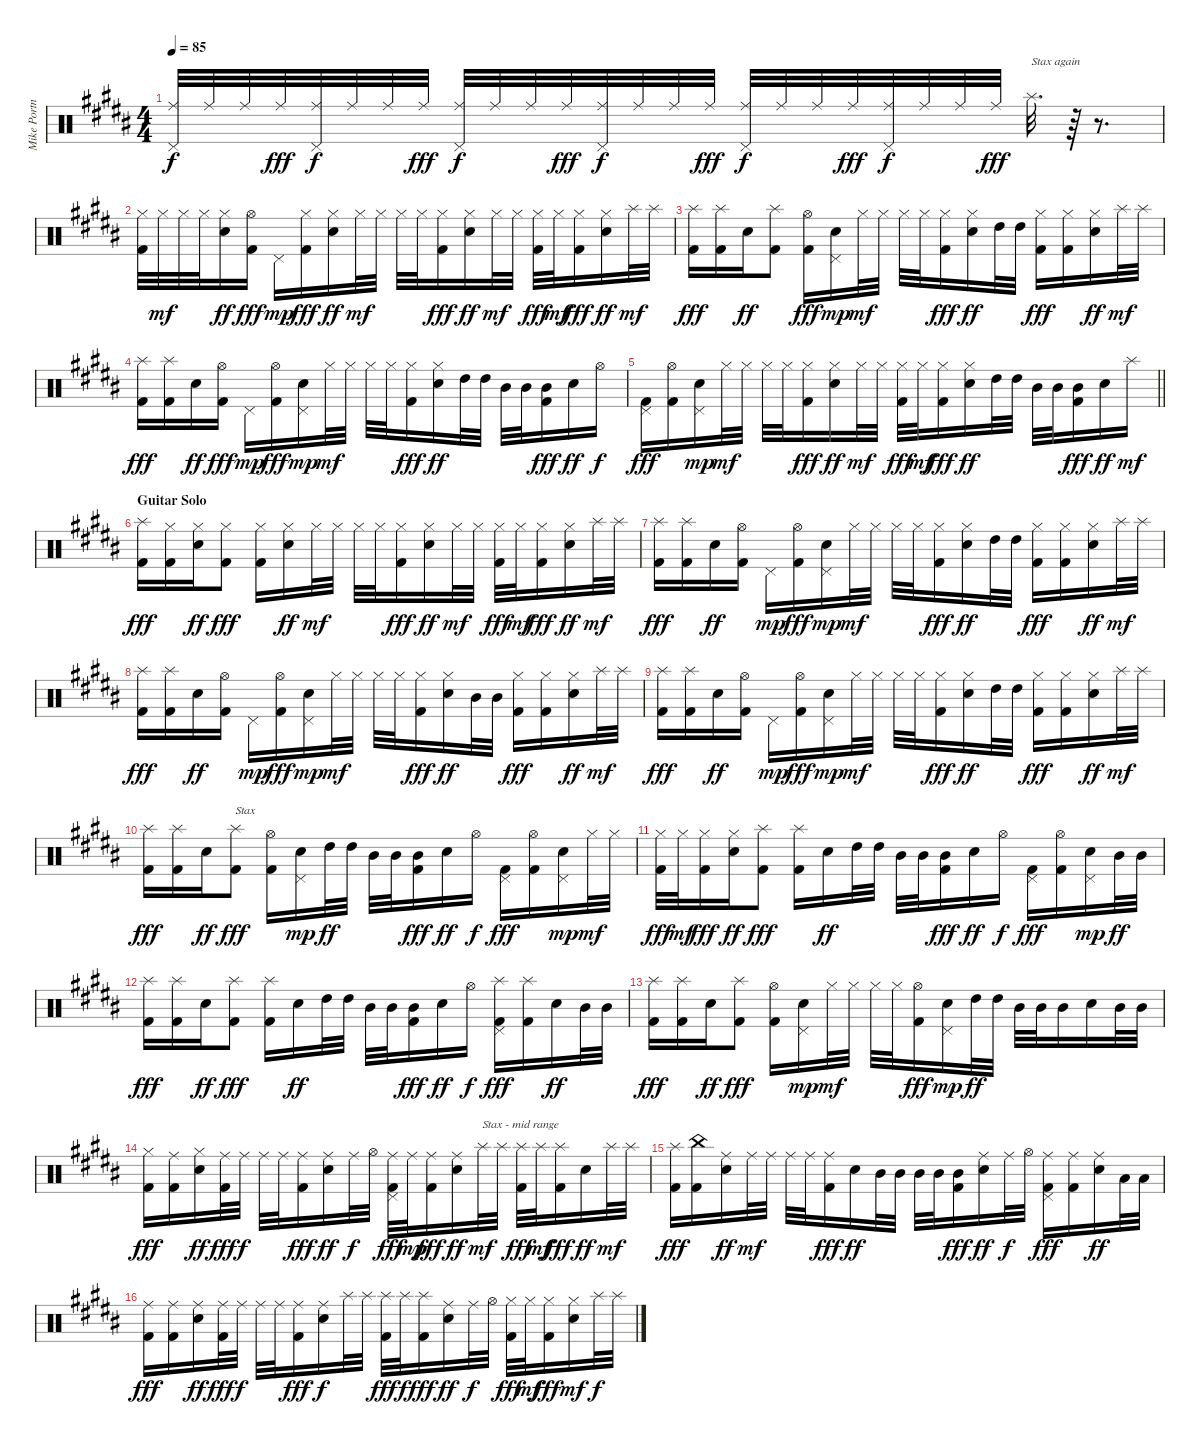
\track ("Mike Portnoy" "Mike Portn") {instrument percussion}
\staff {score}
\articulation defaults
\ts (4 4)
\tempo 85
\clef neutral
\ks b
("Ride (middle)" "Pedal Hi-Hat (hit)").32{dy f} "Ride (middle)".32 "Ride (middle)".32 "Ride (middle)".32{dy fff} ("Ride (middle)" "Pedal Hi-Hat (hit)").32{dy f} "Ride (middle)".32 "Ride (middle)".32 "Ride (middle)".32{dy fff} ("Ride (middle)" "Pedal Hi-Hat (hit)").32{dy f} "Ride (middle)".32 "Ride (middle)".32 "Ride (middle)".32{dy fff} ("Ride (middle)" "Pedal Hi-Hat (hit)").32{dy f} "Ride (middle)".32 "Ride (middle)".32 "Ride (middle)".32{dy fff} ("Ride (middle)" "Pedal Hi-Hat (hit)").32{dy f} "Ride (middle)".32 "Ride (middle)".32 "Ride (middle)".32{dy fff} ("Ride (middle)" "Pedal Hi-Hat (hit)").32{dy f} "Ride (middle)".32 "Ride (middle)".32 "Ride (middle)".32{dy fff} "Splash (hit)".32{d txt "Stax again"} r.64{volume 0} r.8{d} |
("Hi-Hat (closed)" "Kick (hit) 2").32{volume 16} "Hi-Hat (closed)".32{dy mf} "Hi-Hat (closed)".32 "Hi-Hat (closed)".32 ("Hi-Hat (closed)" "Electric Snare (hit)").16{dy ff} ("Hi-Hat (open)" "Kick (hit) 2").16{dy fff} "Pedal Hi-Hat (hit)".16{dy mp} ("Hi-Hat (closed)" "Kick (hit) 2").16{dy fff} ("Hi-Hat (closed)" "Electric Snare (hit)").16{dy ff} "Hi-Hat (closed)".32{dy mf} "Hi-Hat (closed)".32 "Hi-Hat (closed)".32 "Hi-Hat (closed)".32 ("Hi-Hat (closed)" "Kick (hit) 2").16{dy fff} ("Hi-Hat (closed)" "Electric Snare (hit)").16{dy ff} "Hi-Hat (closed)".32{dy mf} "Hi-Hat (closed)".32 ("Hi-Hat (closed)" "Kick (hit) 2").32{dy fff} "Hi-Hat (closed)".32{dy mf} ("Hi-Hat (closed)" "Kick (hit) 2").16{dy fff} ("Hi-Hat (closed)" "Electric Snare (hit)").16{dy ff} "Splash (hit)".32{dy mf} "Splash (hit)".32 |
("Splash (hit)" "Kick (hit) 2").16{dy fff} ("Splash (hit)" "Kick (hit) 2").16 "Electric Snare (hit)".16{dy ff} ("Splash (hit)" "Kick (hit) 2").8 ("Hi-Hat (open)" "Kick (hit) 2").16{dy fff} ("Electric Snare (hit)" "Pedal Hi-Hat (hit)").16{dy mp} "Hi-Hat (closed)".32{dy mf} "Hi-Hat (closed)".32 "Hi-Hat (closed)".32 "Hi-Hat (closed)".32 ("Hi-Hat (closed)" "Kick (hit) 2").16{dy fff} ("Hi-Hat (closed)" "Electric Snare (hit)").16{dy ff} "High Tom (hit)".32 "High Tom (hit)".32 ("Hi-Hat (closed)" "Kick (hit) 2").16{dy fff} ("Hi-Hat (closed)" "Kick (hit) 2").16 ("Hi-Hat (closed)" "Electric Snare (hit)").16{dy ff} "Splash (hit)".32{dy mf} "Splash (hit)".32 |
("Splash (hit)" "Kick (hit) 2").16{dy fff} ("Splash (hit)" "Kick (hit) 2").16 "Electric Snare (hit)".16{dy ff} ("Hi-Hat (open)" "Kick (hit) 2").16{dy fff} "Pedal Hi-Hat (hit)".16{dy mp} ("Hi-Hat (open)" "Kick (hit) 2").16{dy fff} ("Electric Snare (hit)" "Pedal Hi-Hat (hit)").16{dy mp} "Hi-Hat (closed)".32{dy mf} "Hi-Hat (closed)".32 "Hi-Hat (closed)".32 "Hi-Hat (closed)".32 ("Hi-Hat (closed)" "Kick (hit) 2").16{dy fff} ("Hi-Hat (closed)" "Electric Snare (hit)").16{dy ff} "High Tom (hit)".32 "High Tom (hit)".32 "Mid Tom (hit)".32 "Mid Tom (hit)".32 ("Mid Tom (hit)" "Kick (hit) 2").16{dy fff} "Electric Snare (hit)".16{dy ff} "Hi-Hat (open)".16{dy f} |
\barLineRight lightlight
("Pedal Hi-Hat (hit)" "Kick (hit) 2").16{dy fff} ("Hi-Hat (open)" "Kick (hit) 2").16 ("Electric Snare (hit)" "Pedal Hi-Hat (hit)").16{dy mp} "Hi-Hat (closed)".32{dy mf} "Hi-Hat (closed)".32 "Hi-Hat (closed)".32 "Hi-Hat (closed)".32 ("Hi-Hat (closed)" "Kick (hit) 2").16{dy fff} ("Hi-Hat (closed)" "Electric Snare (hit)").16{dy ff} "Hi-Hat (closed)".32{dy mf} "Hi-Hat (closed)".32 ("Hi-Hat (closed)" "Kick (hit) 2").32{dy fff} "Hi-Hat (closed)".32{dy mf} ("Hi-Hat (closed)" "Kick (hit) 2").16{dy fff} ("Hi-Hat (closed)" "Electric Snare (hit)").16{dy ff} "High Tom (hit)".32 "High Tom (hit)".32 "Mid Tom (hit)".32 "Mid Tom (hit)".32 ("Mid Tom (hit)" "Kick (hit) 2").16{dy fff} "Electric Snare (hit)".16{dy ff} "Splash (hit)".16{dy mf} |
\section ("" "Guitar Solo")
("Splash (hit)" "Kick (hit) 2").16{dy fff} ("Hi-Hat (closed)" "Kick (hit) 2").16 ("Hi-Hat (closed)" "Electric Snare (hit)").16{dy ff} ("Hi-Hat (closed)" "Kick (hit) 2").8{dy fff} ("Hi-Hat (closed)" "Kick (hit) 2").16 ("Hi-Hat (closed)" "Electric Snare (hit)").16{dy ff} "Hi-Hat (closed)".32{dy mf} "Hi-Hat (closed)".32 "Hi-Hat (closed)".32 "Hi-Hat (closed)".32 ("Hi-Hat (closed)" "Kick (hit) 2").16{dy fff} ("Hi-Hat (closed)" "Electric Snare (hit)").16{dy ff} "Hi-Hat (closed)".32{dy mf} "Hi-Hat (closed)".32 ("Hi-Hat (closed)" "Kick (hit) 2").32{dy fff} "Hi-Hat (closed)".32{dy mf} ("Hi-Hat (closed)" "Kick (hit) 2").16{dy fff} ("Hi-Hat (closed)" "Electric Snare (hit)").16{dy ff} "Splash (hit)".32{dy mf} "Splash (hit)".32 |
("Splash (hit)" "Kick (hit) 2").16{dy fff} ("Splash (hit)" "Kick (hit) 2").16 "Electric Snare (hit)".16{dy ff} ("Hi-Hat (open)" "Kick (hit) 2").16 "Pedal Hi-Hat (hit)".16{dy mp} ("Hi-Hat (open)" "Kick (hit) 2").16{dy fff} ("Electric Snare (hit)" "Pedal Hi-Hat (hit)").16{dy mp} "Hi-Hat (closed)".32{dy mf} "Hi-Hat (closed)".32 "Hi-Hat (closed)".32 "Hi-Hat (closed)".32 ("Hi-Hat (closed)" "Kick (hit) 2").16{dy fff} ("Hi-Hat (closed)" "Electric Snare (hit)").16{dy ff} "High Tom (hit)".32 "High Tom (hit)".32 ("Hi-Hat (closed)" "Kick (hit) 2").16{dy fff} ("Hi-Hat (closed)" "Kick (hit) 2").16 ("Hi-Hat (closed)" "Electric Snare (hit)").16{dy ff} "Splash (hit)".32{dy mf} "Splash (hit)".32 |
("Splash (hit)" "Kick (hit) 2").16{dy fff} ("Splash (hit)" "Kick (hit) 2").16 "Electric Snare (hit)".16{dy ff} ("Hi-Hat (open)" "Kick (hit) 2").16 "Pedal Hi-Hat (hit)".16{dy mp} ("Hi-Hat (open)" "Kick (hit) 2").16{dy fff} ("Electric Snare (hit)" "Pedal Hi-Hat (hit)").16{dy mp} "Hi-Hat (closed)".32{dy mf} "Hi-Hat (closed)".32 "Hi-Hat (closed)".32 "Hi-Hat (closed)".32 ("Hi-Hat (closed)" "Kick (hit) 2").16{dy fff} ("Hi-Hat (closed)" "Electric Snare (hit)").16{dy ff} "Mid Tom (hit)".32 "Mid Tom (hit)".32 ("Hi-Hat (closed)" "Kick (hit) 2").16{dy fff} ("Hi-Hat (closed)" "Kick (hit) 2").16 ("Hi-Hat (closed)" "Electric Snare (hit)").16{dy ff} "Splash (hit)".32{dy mf} "Splash (hit)".32 |
("Splash (hit)" "Kick (hit) 2").16{dy fff} ("Splash (hit)" "Kick (hit) 2").16 "Electric Snare (hit)".16{dy ff} ("Hi-Hat (open)" "Kick (hit) 2").16 "Pedal Hi-Hat (hit)".16{dy mp} ("Hi-Hat (open)" "Kick (hit) 2").16{dy fff} ("Electric Snare (hit)" "Pedal Hi-Hat (hit)").16{dy mp} "Hi-Hat (closed)".32{dy mf} "Hi-Hat (closed)".32 "Hi-Hat (closed)".32 "Hi-Hat (closed)".32 ("Hi-Hat (closed)" "Kick (hit) 2").16{dy fff} ("Hi-Hat (closed)" "Electric Snare (hit)").16{dy ff} "High Tom (hit)".32 "High Tom (hit)".32 ("Hi-Hat (closed)" "Kick (hit) 2").16{dy fff} ("Hi-Hat (closed)" "Kick (hit) 2").16 ("Hi-Hat (closed)" "Electric Snare (hit)").16{dy ff} "Splash (hit)".32{dy mf} "Splash (hit)".32 |
("Splash (hit)" "Kick (hit) 2").16{dy fff} ("Splash (hit)" "Kick (hit) 2").16 "Electric Snare (hit)".16{dy ff} ("Splash (hit)" "Kick (hit) 2").8{txt "Stax" dy fff} ("Hi-Hat (open)" "Kick (hit) 2").16 ("Electric Snare (hit)" "Pedal Hi-Hat (hit)").16{dy mp} "High Tom (hit)".32{dy ff} "High Tom (hit)".32 "Mid Tom (hit)".32 "Mid Tom (hit)".32 ("Mid Tom (hit)" "Kick (hit) 2").16{dy fff} "Electric Snare (hit)".16{dy ff} "Hi-Hat (open)".16{dy f} ("Pedal Hi-Hat (hit)" "Kick (hit) 2").16{dy fff} ("Hi-Hat (open)" "Kick (hit) 2").16 ("Electric Snare (hit)" "Pedal Hi-Hat (hit)").16{dy mp} "Hi-Hat (closed)".32{dy mf} "Hi-Hat (closed)".32 |
("Hi-Hat (closed)" "Kick (hit) 2").32{dy fff} "Hi-Hat (closed)".32{dy mf} ("Hi-Hat (closed)" "Kick (hit) 2").16{dy fff} ("Hi-Hat (closed)" "Electric Snare (hit)").16{dy ff} ("Splash (hit)" "Kick (hit) 2").8{dy fff} ("Splash (hit)" "Kick (hit) 2").16 "Electric Snare (hit)".16{dy ff} "High Tom (hit)".32 "High Tom (hit)".32 "Mid Tom (hit)".32 "Mid Tom (hit)".32 ("Mid Tom (hit)" "Kick (hit) 2").16{dy fff} "Electric Snare (hit)".16{dy ff} "Hi-Hat (open)".16{dy f} ("Pedal Hi-Hat (hit)" "Kick (hit) 2").16{dy fff} ("Hi-Hat (open)" "Kick (hit) 2").16 ("Electric Snare (hit)" "Pedal Hi-Hat (hit)").16{dy mp} "Mid Tom (hit)".32{dy ff} "Mid Tom (hit)".32 |
("Splash (hit)" "Kick (hit) 2").16{dy fff} ("Splash (hit)" "Kick (hit) 2").16 "Electric Snare (hit)".16{dy ff} ("Splash (hit)" "Kick (hit) 2").8{dy fff} ("Splash (hit)" "Kick (hit) 2").16 "Electric Snare (hit)".16{dy ff} "High Tom (hit)".32 "High Tom (hit)".32 "Mid Tom (hit)".32 "Mid Tom (hit)".32 ("Mid Tom (hit)" "Kick (hit) 2").16{dy fff} "Electric Snare (hit)".16{dy ff} "Hi-Hat (open)".16{dy f} ("Splash (hit)" "Pedal Hi-Hat (hit)" "Kick (hit) 2").16{dy fff} ("Splash (hit)" "Kick (hit) 2").16 "Electric Snare (hit)".16{dy ff} "Mid Tom (hit)".32 "Mid Tom (hit)".32 |
("Splash (hit)" "Kick (hit) 2").16{dy fff} ("Splash (hit)" "Kick (hit) 2").16 "Electric Snare (hit)".16{dy ff} ("Splash (hit)" "Kick (hit) 2").8{dy fff} ("Hi-Hat (open)" "Kick (hit) 2").16 ("Electric Snare (hit)" "Pedal Hi-Hat (hit)").16{dy mp} "Hi-Hat (closed)".32{dy mf} "Hi-Hat (closed)".32 "Hi-Hat (closed)".32 "Hi-Hat (closed)".32 ("Hi-Hat (open)" "Kick (hit) 2").16{dy fff} ("Electric Snare (hit)" "Pedal Hi-Hat (hit)").16{dy mp} "High Tom (hit)".32{dy ff} "High Tom (hit)".32 "Mid Tom (hit)".32 "Mid Tom (hit)".32 "Mid Tom (hit)".16 "Electric Snare (hit)".16 "Mid Tom (hit)".32 "Mid Tom (hit)".32 |
("Hi-Hat (closed)" "Kick (hit) 2").16{dy fff} ("Ride (middle)" "Kick (hit) 2").16 ("Hi-Hat (closed)" "Electric Snare (hit)").16{dy ff} ("Ride (middle)" "Kick (hit) 2").32{dy fff} "Ride (middle)".32{dy f} "Ride (middle)".32 "Ride (middle)".32 ("Ride (middle)" "Kick (hit) 2").16{dy fff} ("Ride (middle)" "Electric Snare (hit)").16{dy ff} "Ride (middle)".32{dy f} "Hi-Hat (open)".32 ("Ride (middle)" "Pedal Hi-Hat (hit)" "Kick (hit) 2").32{dy fff} "Ride (middle)".32{dy mp} ("Ride (middle)" "Kick (hit) 2").16{dy fff} ("Ride (middle)" "Electric Snare (hit)").16{dy ff} "Splash (hit)".32{txt "Stax - mid range" dy mf} "Splash (hit)".32 ("Splash (hit)" "Kick (hit) 2").32{dy fff} "Splash (hit)".32{dy mf} ("Splash (hit)" "Kick (hit) 2").16{dy fff} "Electric Snare (hit)".16{dy ff} "Splash (hit)".32{dy mf} "Splash (hit)".32 |
("Splash (hit)" "Kick (hit) 2").16{dy fff} ("China (hit)" "Kick (hit) 2").16 ("Ride (middle)" "Electric Snare (hit)").16{dy ff} "Ride (middle)".32{dy mf} "Ride (middle)".32 "Ride (middle)".32 "Ride (middle)".32 ("Ride (middle)" "Kick (hit) 2").16{dy fff} "Electric Snare (hit)".16{dy ff} "Mid Tom (hit)".32 "Mid Tom (hit)".32 "Mid Tom (hit)".32 "Mid Tom (hit)".32 ("Mid Tom (hit)" "Kick (hit) 2").16{dy fff} ("Ride (middle)" "Electric Snare (hit)").16{dy ff} "Ride (middle)".32{dy f} "Hi-Hat (open)".32 ("Ride (middle)" "Pedal Hi-Hat (hit)" "Kick (hit) 2").16{dy fff} ("Ride (middle)" "Kick (hit) 2").16 ("Ride (middle)" "Electric Snare (hit)").16{dy ff} "Low Tom (hit)".32 "Low Tom (hit)".32 |
("Ride (middle)" "Kick (hit) 2").16{dy fff} ("Ride (middle)" "Kick (hit) 2").16 ("Ride (middle)" "Electric Snare (hit)").16{dy ff} ("Ride (middle)" "Kick (hit) 2").32{dy fff} "Ride (middle)".32{dy f} "Ride (middle)".32 "Ride (middle)".32 ("Ride (middle)" "Kick (hit) 2").16{dy fff} ("Ride (middle)" "Electric Snare (hit)").16{dy f} "Splash (hit)".32 "Splash (hit)".32 ("Splash (hit)" "Kick (hit) 2").32{dy fff} "Splash (hit)".32{dy f} ("Splash (hit)" "Kick (hit) 2").16{dy fff} ("Ride (middle)" "Electric Snare (hit)").16{dy ff} "Ride (middle)".32{dy f} "Hi-Hat (open)".32 ("Hi-Hat (closed)" "Kick (hit) 2").32{dy fff} "Hi-Hat (closed)".32{dy mf} ("Hi-Hat (closed)" "Kick (hit) 2").16{dy fff} ("Hi-Hat (closed)" "Electric Snare (hit)").16{dy mf} "Splash (hit)".32{dy f} "Splash (hit)".32
